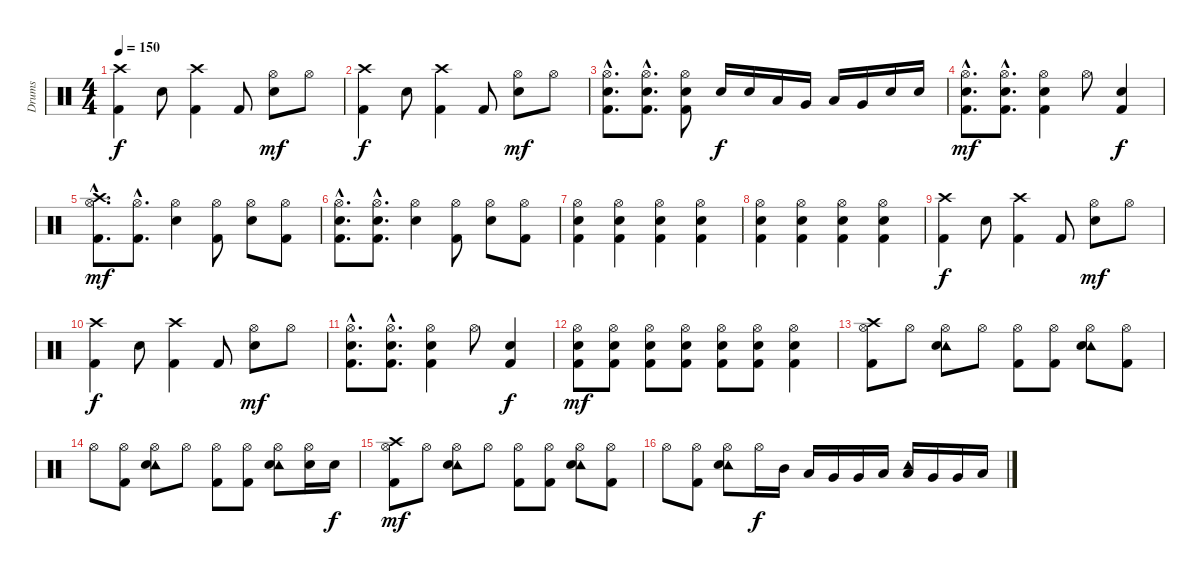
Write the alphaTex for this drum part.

\track ("Drums" "Drums") {instrument percussion}
\staff {score}
\articulation defaults
\ts (4 4)
\tempo 150
\clef neutral
\ks c
("Crash high (hit)" "Kick (hit) 2").4{dy f} "Snare (hit) 2".8 ("Crash high (hit)" "Kick (hit) 2").4 "Kick (hit) 2".8 ("Hi-Hat (open)" "Snare (hit) 2").8{dy mf} "Hi-Hat (open)".8 |
("Crash high (hit)" "Kick (hit) 2").4{dy f} "Snare (hit) 2".8 ("Crash high (hit)" "Kick (hit) 2").4 "Kick (hit) 2".8 ("Hi-Hat (open)" "Snare (hit) 2").8{dy mf} "Hi-Hat (open)".8 |
("Hi-Hat (open)"{hac} "Snare (hit) 2"{hac} "Kick (hit) 2"{hac}).8{d} ("Hi-Hat (open)"{hac} "Snare (hit) 2"{hac} "Kick (hit) 2"{hac}).8{d} ("Hi-Hat (open)" "Snare (hit) 2" "Kick (hit) 2").8 "Snare (hit) 2".16{dy f} "Snare (hit) 2".16 "Low Tom (hit)".16 "Very Low Tom (hit)".16 "Low Floor Tom (hit)".16 "Very Low Tom (hit)".16 "Snare (hit) 2".16 "Snare (hit) 2".16 |
("Hi-Hat (open)"{hac} "Snare (hit) 2"{hac} "Kick (hit) 2"{hac}).8{d dy mf} ("Hi-Hat (open)"{hac} "Snare (hit) 2"{hac} "Kick (hit) 2"{hac}).8{d} ("Hi-Hat (open)" "Snare (hit) 2" "Kick (hit) 2").4 "Hi-Hat (open)".8 ("Kick (hit) 2" "Snare (hit) 2").4{dy f} |
("Crash high (hit)"{hac} "Hi-Hat (open)"{hac} "Kick (hit) 2"{hac}).8{d dy mf} ("Hi-Hat (open)"{hac} "Kick (hit) 2"{hac}).8{d} ("Hi-Hat (open)" "Snare (hit) 2").4 ("Hi-Hat (open)" "Kick (hit) 2").8 ("Hi-Hat (open)" "Snare (hit) 2").8 ("Hi-Hat (open)" "Kick (hit) 2").8 |
("Hi-Hat (open)"{hac} "Snare (hit) 2"{hac} "Kick (hit) 2"{hac}).8{d} ("Hi-Hat (open)"{hac} "Snare (hit) 2"{hac} "Kick (hit) 2"{hac}).8{d} ("Hi-Hat (open)" "Snare (hit) 2").4 ("Hi-Hat (open)" "Kick (hit) 2").8 ("Hi-Hat (open)" "Snare (hit) 2").8 ("Hi-Hat (open)" "Kick (hit) 2").8 |
("Hi-Hat (open)" "Snare (hit) 2" "Kick (hit) 2").4 ("Hi-Hat (open)" "Snare (hit) 2" "Kick (hit) 2").4 ("Hi-Hat (open)" "Snare (hit) 2" "Kick (hit) 2").4 ("Hi-Hat (open)" "Snare (hit) 2" "Kick (hit) 2").4 |
("Hi-Hat (open)" "Snare (hit) 2" "Kick (hit) 2").4 ("Hi-Hat (open)" "Snare (hit) 2" "Kick (hit) 2").4 ("Hi-Hat (open)" "Snare (hit) 2" "Kick (hit) 2").4 ("Hi-Hat (open)" "Snare (hit) 2" "Kick (hit) 2").4 |
("Crash high (hit)" "Kick (hit) 2").4{dy f} "Snare (hit) 2".8 ("Crash high (hit)" "Kick (hit) 2").4 "Kick (hit) 2".8 ("Hi-Hat (open)" "Snare (hit) 2").8{dy mf} "Hi-Hat (open)".8 |
("Crash high (hit)" "Kick (hit) 2").4{dy f} "Snare (hit) 2".8 ("Crash high (hit)" "Kick (hit) 2").4 "Kick (hit) 2".8 ("Hi-Hat (open)" "Snare (hit) 2").8{dy mf} "Hi-Hat (open)".8 |
("Hi-Hat (open)"{hac} "Snare (hit) 2"{hac} "Kick (hit) 2"{hac}).8{d} ("Hi-Hat (open)"{hac} "Snare (hit) 2"{hac} "Kick (hit) 2"{hac}).8{d} ("Hi-Hat (open)" "Snare (hit) 2" "Kick (hit) 2").4 "Hi-Hat (open)".8 ("Kick (hit) 2" "Snare (hit) 2").4{dy f} |
("Hi-Hat (open)" "Snare (hit) 2" "Kick (hit) 2").8{dy mf} ("Hi-Hat (open)" "Snare (hit) 2" "Kick (hit) 2").8 ("Hi-Hat (open)" "Snare (hit) 2" "Kick (hit) 2").8 ("Hi-Hat (open)" "Snare (hit) 2" "Kick (hit) 2").8 ("Hi-Hat (open)" "Snare (hit) 2" "Kick (hit) 2").8 ("Hi-Hat (open)" "Snare (hit) 2" "Kick (hit) 2").8 ("Hi-Hat (open)" "Snare (hit) 2" "Kick (hit) 2").4 |
("Crash high (hit)" "Hi-Hat (open)" "Kick (hit) 2").8 "Hi-Hat (open)".8 ("Tambourine (hit)" "Hi-Hat (open)" "Snare (hit) 2").8 "Hi-Hat (open)".8 ("Hi-Hat (open)" "Kick (hit) 2").8 ("Hi-Hat (open)" "Kick (hit) 2").8 ("Tambourine (hit)" "Hi-Hat (open)" "Snare (hit) 2").8 ("Hi-Hat (open)" "Kick (hit) 2").8 |
"Hi-Hat (open)".8 ("Hi-Hat (open)" "Kick (hit) 2").8 ("Tambourine (hit)" "Hi-Hat (open)" "Snare (hit) 2").8 "Hi-Hat (open)".8 ("Hi-Hat (open)" "Kick (hit) 2").8 ("Hi-Hat (open)" "Kick (hit) 2").8 ("Tambourine (hit)" "Hi-Hat (open)" "Snare (hit) 2").8 ("Hi-Hat (open)" "Snare (hit) 2").16 "Snare (hit) 2".16{dy f} |
("Crash high (hit)" "Hi-Hat (open)" "Kick (hit) 2").8{dy mf} "Hi-Hat (open)".8 ("Tambourine (hit)" "Hi-Hat (open)" "Snare (hit) 2").8 "Hi-Hat (open)".8 ("Hi-Hat (open)" "Kick (hit) 2").8 ("Hi-Hat (open)" "Kick (hit) 2").8 ("Tambourine (hit)" "Hi-Hat (open)" "Snare (hit) 2").8 ("Hi-Hat (open)" "Kick (hit) 2").8 |
"Hi-Hat (open)".8 ("Hi-Hat (open)" "Kick (hit) 2").8 ("Tambourine (hit)" "Hi-Hat (open)" "Snare (hit) 2").8 "Hi-Hat (open)".16{dy f} "Mid Tom (hit)".16 "Low Tom (hit)".16 "Very Low Tom (hit)".16 "Very Low Tom (hit)".16 "Low Floor Tom (hit)".16 ("Tambourine (hit)" "Low Floor Tom (hit)").16 "Very Low Tom (hit)".16 "Very Low Tom (hit)".16 "Low Tom (hit)".16
